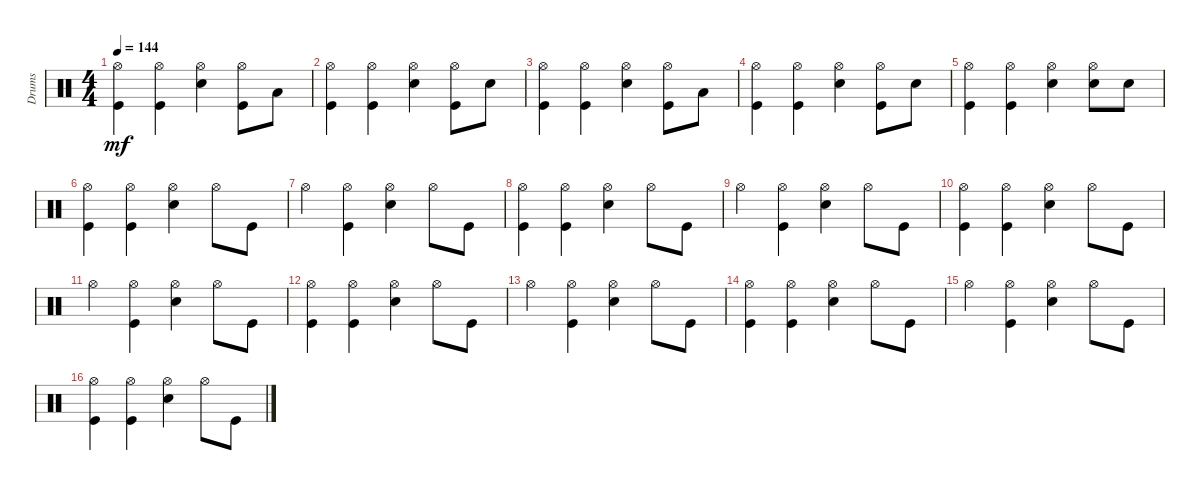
\track ("Drums               " "Drums     ") {instrument percussion}
\staff {score}
\articulation defaults
\ts (4 4)
\tempo 144
\clef neutral
\ks c
("Kick (hit)" "Hi-Hat (open)").4{dy mf} ("Kick (hit)" "Hi-Hat (open)").4 ("Snare (hit) 2" "Hi-Hat (open)").4 ("Kick (hit)" "Hi-Hat (open)").8 "Low Tom (hit)".8 |
("Kick (hit)" "Hi-Hat (open)").4 ("Kick (hit)" "Hi-Hat (open)").4 ("Snare (hit) 2" "Hi-Hat (open)").4 ("Hi-Hat (open)" "Kick (hit)").8 "Snare (hit) 2".8 |
("Kick (hit)" "Hi-Hat (open)").4 ("Kick (hit)" "Hi-Hat (open)").4 ("Snare (hit) 2" "Hi-Hat (open)").4 ("Kick (hit)" "Hi-Hat (open)").8 "Low Tom (hit)".8 |
("Kick (hit)" "Hi-Hat (open)").4 ("Kick (hit)" "Hi-Hat (open)").4 ("Snare (hit) 2" "Hi-Hat (open)").4 ("Hi-Hat (open)" "Kick (hit)").8 "Snare (hit) 2".8 |
("Kick (hit)" "Hi-Hat (open)").4 ("Kick (hit)" "Hi-Hat (open)").4 ("Snare (hit) 2" "Hi-Hat (open)").4 ("Hi-Hat (open)" "Snare (hit) 2").8 "Snare (hit) 2".8 |
("Kick (hit)" "Hi-Hat (open)").4 ("Kick (hit)" "Hi-Hat (open)").4 ("Snare (hit) 2" "Hi-Hat (open)").4 "Hi-Hat (open)".8 "Kick (hit)".8 |
"Hi-Hat (open)".4 ("Hi-Hat (open)" "Kick (hit)").4 ("Snare (hit) 2" "Hi-Hat (open)").4 "Hi-Hat (open)".8 "Kick (hit)".8 |
("Kick (hit)" "Hi-Hat (open)").4 ("Kick (hit)" "Hi-Hat (open)").4 ("Snare (hit) 2" "Hi-Hat (open)").4 "Hi-Hat (open)".8 "Kick (hit)".8 |
"Hi-Hat (open)".4 ("Hi-Hat (open)" "Kick (hit)").4 ("Snare (hit) 2" "Hi-Hat (open)").4 "Hi-Hat (open)".8 "Kick (hit)".8 |
("Kick (hit)" "Hi-Hat (open)").4 ("Kick (hit)" "Hi-Hat (open)").4 ("Snare (hit) 2" "Hi-Hat (open)").4 "Hi-Hat (open)".8 "Kick (hit)".8 |
"Hi-Hat (open)".4 ("Hi-Hat (open)" "Kick (hit)").4 ("Snare (hit) 2" "Hi-Hat (open)").4 "Hi-Hat (open)".8 "Kick (hit)".8 |
("Kick (hit)" "Hi-Hat (open)").4 ("Kick (hit)" "Hi-Hat (open)").4 ("Snare (hit) 2" "Hi-Hat (open)").4 "Hi-Hat (open)".8 "Kick (hit)".8 |
"Hi-Hat (open)".4 ("Hi-Hat (open)" "Kick (hit)").4 ("Snare (hit) 2" "Hi-Hat (open)").4 "Hi-Hat (open)".8 "Kick (hit)".8 |
("Kick (hit)" "Hi-Hat (open)").4 ("Kick (hit)" "Hi-Hat (open)").4 ("Snare (hit) 2" "Hi-Hat (open)").4 "Hi-Hat (open)".8 "Kick (hit)".8 |
"Hi-Hat (open)".4 ("Hi-Hat (open)" "Kick (hit)").4 ("Snare (hit) 2" "Hi-Hat (open)").4 "Hi-Hat (open)".8 "Kick (hit)".8 |
("Kick (hit)" "Hi-Hat (open)").4 ("Kick (hit)" "Hi-Hat (open)").4 ("Snare (hit) 2" "Hi-Hat (open)").4 "Hi-Hat (open)".8 "Kick (hit)".8
